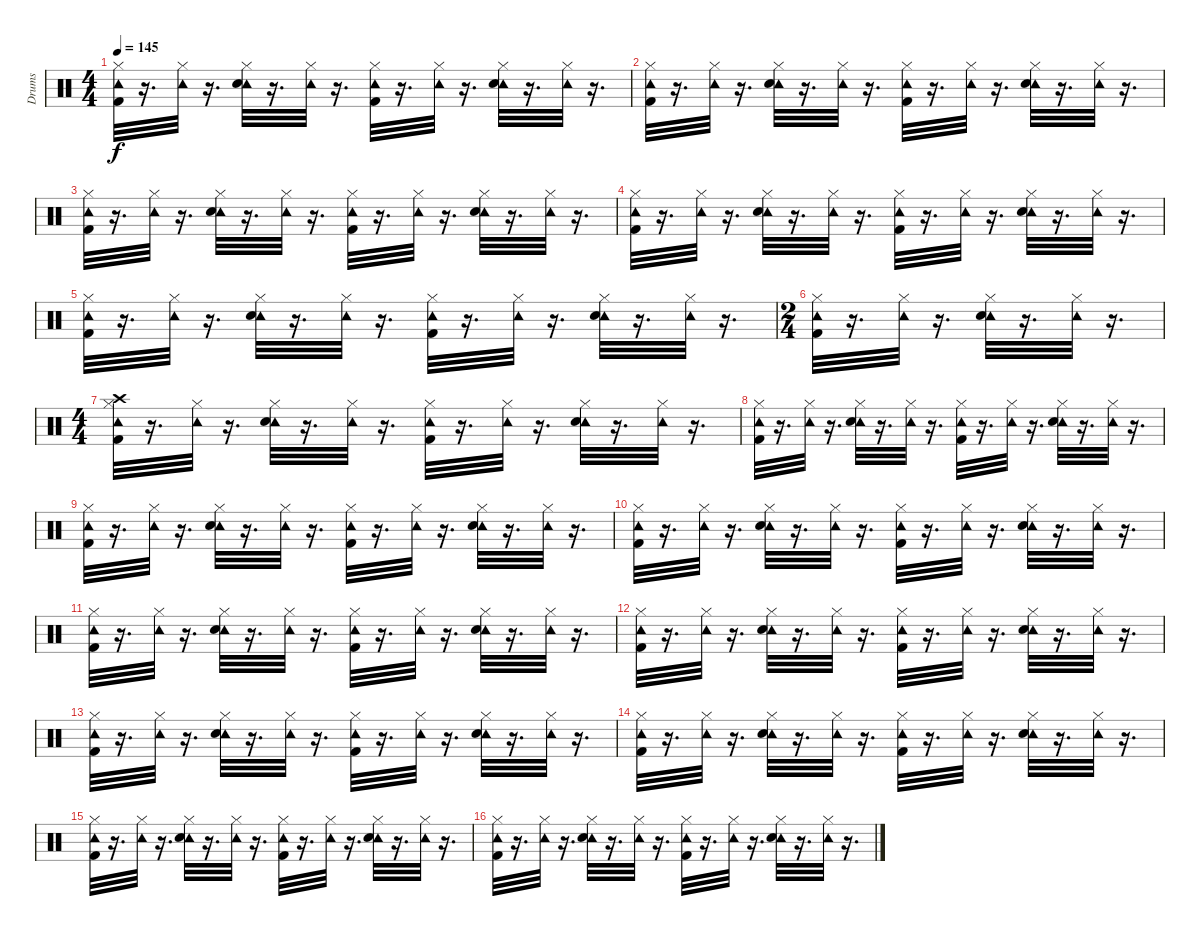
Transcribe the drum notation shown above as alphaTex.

\track ("Drums" "Drums") {instrument percussion}
\staff {score}
\articulation defaults
\ts (4 4)
\tempo 145
\clef neutral
\ks c
("Tambourine (hit)" "Kick (hit) 2" "Hi-Hat (closed)").32{dy f} r.16{d} ("Tambourine (hit)" "Hi-Hat (closed)").32 r.16{d} ("Tambourine (hit)" "Hi-Hat (closed)" "Snare (hit) 2").32 r.16{d} ("Tambourine (hit)" "Hi-Hat (closed)").32 r.16{d} ("Tambourine (hit)" "Kick (hit) 2" "Hi-Hat (closed)").32 r.16{d} ("Tambourine (hit)" "Hi-Hat (closed)").32 r.16{d} ("Tambourine (hit)" "Snare (hit) 2" "Hi-Hat (closed)").32 r.16{d} ("Tambourine (hit)" "Hi-Hat (closed)").32 r.16{d} |
("Tambourine (hit)" "Kick (hit) 2" "Hi-Hat (closed)").32 r.16{d} ("Tambourine (hit)" "Hi-Hat (closed)").32 r.16{d} ("Tambourine (hit)" "Hi-Hat (closed)" "Snare (hit) 2").32 r.16{d} ("Tambourine (hit)" "Hi-Hat (closed)").32 r.16{d} ("Tambourine (hit)" "Kick (hit) 2" "Hi-Hat (closed)").32 r.16{d} ("Tambourine (hit)" "Hi-Hat (closed)").32 r.16{d} ("Tambourine (hit)" "Snare (hit) 2" "Hi-Hat (closed)").32 r.16{d} ("Tambourine (hit)" "Hi-Hat (closed)").32 r.16{d} |
("Tambourine (hit)" "Kick (hit) 2" "Hi-Hat (closed)").32 r.16{d} ("Tambourine (hit)" "Hi-Hat (closed)").32 r.16{d} ("Tambourine (hit)" "Hi-Hat (closed)" "Snare (hit) 2").32 r.16{d} ("Tambourine (hit)" "Hi-Hat (closed)").32 r.16{d} ("Tambourine (hit)" "Kick (hit) 2" "Hi-Hat (closed)").32 r.16{d} ("Tambourine (hit)" "Hi-Hat (closed)").32 r.16{d} ("Tambourine (hit)" "Snare (hit) 2" "Hi-Hat (closed)").32 r.16{d} ("Tambourine (hit)" "Hi-Hat (closed)").32 r.16{d} |
("Tambourine (hit)" "Kick (hit) 2" "Hi-Hat (closed)").32 r.16{d} ("Tambourine (hit)" "Hi-Hat (closed)").32 r.16{d} ("Tambourine (hit)" "Hi-Hat (closed)" "Snare (hit) 2").32 r.16{d} ("Tambourine (hit)" "Hi-Hat (closed)").32 r.16{d} ("Tambourine (hit)" "Kick (hit) 2" "Hi-Hat (closed)").32 r.16{d} ("Tambourine (hit)" "Hi-Hat (closed)").32 r.16{d} ("Tambourine (hit)" "Snare (hit) 2" "Hi-Hat (closed)").32 r.16{d} ("Tambourine (hit)" "Hi-Hat (closed)").32 r.16{d} |
("Tambourine (hit)" "Kick (hit) 2" "Hi-Hat (closed)").32 r.16{d} ("Tambourine (hit)" "Hi-Hat (closed)").32 r.16{d} ("Tambourine (hit)" "Hi-Hat (closed)" "Snare (hit) 2").32 r.16{d} ("Tambourine (hit)" "Hi-Hat (closed)").32 r.16{d} ("Tambourine (hit)" "Kick (hit) 2" "Hi-Hat (closed)").32 r.16{d} ("Tambourine (hit)" "Hi-Hat (closed)").32 r.16{d} ("Tambourine (hit)" "Snare (hit) 2" "Hi-Hat (closed)").32 r.16{d} ("Tambourine (hit)" "Hi-Hat (closed)").32 r.16{d} |
\ts (2 4)
("Tambourine (hit)" "Kick (hit) 2" "Hi-Hat (closed)").32 r.16{d} ("Tambourine (hit)" "Hi-Hat (closed)").32 r.16{d} ("Tambourine (hit)" "Hi-Hat (closed)" "Snare (hit) 2").32 r.16{d} ("Tambourine (hit)" "Hi-Hat (closed)").32 r.16{d} |
\ts (4 4)
("Tambourine (hit)" "Kick (hit) 2" "Hi-Hat (closed)" "Crash high (hit)").32 r.16{d} ("Tambourine (hit)" "Hi-Hat (closed)").32 r.16{d} ("Tambourine (hit)" "Hi-Hat (closed)" "Snare (hit) 2").32 r.16{d} ("Tambourine (hit)" "Hi-Hat (closed)").32 r.16{d} ("Tambourine (hit)" "Kick (hit) 2" "Hi-Hat (closed)").32 r.16{d} ("Tambourine (hit)" "Hi-Hat (closed)").32 r.16{d} ("Tambourine (hit)" "Snare (hit) 2" "Hi-Hat (closed)").32 r.16{d} ("Tambourine (hit)" "Hi-Hat (closed)").32 r.16{d} |
("Tambourine (hit)" "Kick (hit) 2" "Hi-Hat (closed)").32 r.16{d} ("Tambourine (hit)" "Hi-Hat (closed)").32 r.16{d} ("Tambourine (hit)" "Hi-Hat (closed)" "Snare (hit) 2").32 r.16{d} ("Tambourine (hit)" "Hi-Hat (closed)").32 r.16{d} ("Tambourine (hit)" "Kick (hit) 2" "Hi-Hat (closed)").32 r.16{d} ("Tambourine (hit)" "Hi-Hat (closed)").32 r.16{d} ("Tambourine (hit)" "Snare (hit) 2" "Hi-Hat (closed)").32 r.16{d} ("Tambourine (hit)" "Hi-Hat (closed)").32 r.16{d} |
("Tambourine (hit)" "Kick (hit) 2" "Hi-Hat (closed)").32 r.16{d} ("Tambourine (hit)" "Hi-Hat (closed)").32 r.16{d} ("Tambourine (hit)" "Hi-Hat (closed)" "Snare (hit) 2").32 r.16{d} ("Tambourine (hit)" "Hi-Hat (closed)").32 r.16{d} ("Tambourine (hit)" "Kick (hit) 2" "Hi-Hat (closed)").32 r.16{d} ("Tambourine (hit)" "Hi-Hat (closed)").32 r.16{d} ("Tambourine (hit)" "Snare (hit) 2" "Hi-Hat (closed)").32 r.16{d} ("Tambourine (hit)" "Hi-Hat (closed)").32 r.16{d} |
("Tambourine (hit)" "Kick (hit) 2" "Hi-Hat (closed)").32 r.16{d} ("Tambourine (hit)" "Hi-Hat (closed)").32 r.16{d} ("Tambourine (hit)" "Hi-Hat (closed)" "Snare (hit) 2").32 r.16{d} ("Tambourine (hit)" "Hi-Hat (closed)").32 r.16{d} ("Tambourine (hit)" "Kick (hit) 2" "Hi-Hat (closed)").32 r.16{d} ("Tambourine (hit)" "Hi-Hat (closed)").32 r.16{d} ("Tambourine (hit)" "Snare (hit) 2" "Hi-Hat (closed)").32 r.16{d} ("Tambourine (hit)" "Hi-Hat (closed)").32 r.16{d} |
("Tambourine (hit)" "Kick (hit) 2" "Hi-Hat (closed)").32 r.16{d} ("Tambourine (hit)" "Hi-Hat (closed)").32 r.16{d} ("Tambourine (hit)" "Hi-Hat (closed)" "Snare (hit) 2").32 r.16{d} ("Tambourine (hit)" "Hi-Hat (closed)").32 r.16{d} ("Tambourine (hit)" "Kick (hit) 2" "Hi-Hat (closed)").32 r.16{d} ("Tambourine (hit)" "Hi-Hat (closed)").32 r.16{d} ("Tambourine (hit)" "Snare (hit) 2" "Hi-Hat (closed)").32 r.16{d} ("Tambourine (hit)" "Hi-Hat (closed)").32 r.16{d} |
("Tambourine (hit)" "Kick (hit) 2" "Hi-Hat (closed)").32 r.16{d} ("Tambourine (hit)" "Hi-Hat (closed)").32 r.16{d} ("Tambourine (hit)" "Hi-Hat (closed)" "Snare (hit) 2").32 r.16{d} ("Tambourine (hit)" "Hi-Hat (closed)").32 r.16{d} ("Tambourine (hit)" "Kick (hit) 2" "Hi-Hat (closed)").32 r.16{d} ("Tambourine (hit)" "Hi-Hat (closed)").32 r.16{d} ("Tambourine (hit)" "Snare (hit) 2" "Hi-Hat (closed)").32 r.16{d} ("Tambourine (hit)" "Hi-Hat (closed)").32 r.16{d} |
("Tambourine (hit)" "Kick (hit) 2" "Hi-Hat (closed)").32 r.16{d} ("Tambourine (hit)" "Hi-Hat (closed)").32 r.16{d} ("Tambourine (hit)" "Hi-Hat (closed)" "Snare (hit) 2").32 r.16{d} ("Tambourine (hit)" "Hi-Hat (closed)").32 r.16{d} ("Tambourine (hit)" "Kick (hit) 2" "Hi-Hat (closed)").32 r.16{d} ("Tambourine (hit)" "Hi-Hat (closed)").32 r.16{d} ("Tambourine (hit)" "Snare (hit) 2" "Hi-Hat (closed)").32 r.16{d} ("Tambourine (hit)" "Hi-Hat (closed)").32 r.16{d} |
("Tambourine (hit)" "Kick (hit) 2" "Hi-Hat (closed)").32 r.16{d} ("Tambourine (hit)" "Hi-Hat (closed)").32 r.16{d} ("Tambourine (hit)" "Hi-Hat (closed)" "Snare (hit) 2").32 r.16{d} ("Tambourine (hit)" "Hi-Hat (closed)").32 r.16{d} ("Tambourine (hit)" "Kick (hit) 2" "Hi-Hat (closed)").32 r.16{d} ("Tambourine (hit)" "Hi-Hat (closed)").32 r.16{d} ("Tambourine (hit)" "Snare (hit) 2" "Hi-Hat (closed)").32 r.16{d} ("Tambourine (hit)" "Hi-Hat (closed)").32 r.16{d} |
("Tambourine (hit)" "Kick (hit) 2" "Hi-Hat (closed)").32 r.16{d} ("Tambourine (hit)" "Hi-Hat (closed)").32 r.16{d} ("Tambourine (hit)" "Hi-Hat (closed)" "Snare (hit) 2").32 r.16{d} ("Tambourine (hit)" "Hi-Hat (closed)").32 r.16{d} ("Tambourine (hit)" "Kick (hit) 2" "Hi-Hat (closed)").32 r.16{d} ("Tambourine (hit)" "Hi-Hat (closed)").32 r.16{d} ("Tambourine (hit)" "Snare (hit) 2" "Hi-Hat (closed)").32 r.16{d} ("Tambourine (hit)" "Hi-Hat (closed)").32 r.16{d} |
("Tambourine (hit)" "Kick (hit) 2" "Hi-Hat (closed)").32 r.16{d} ("Tambourine (hit)" "Hi-Hat (closed)").32 r.16{d} ("Tambourine (hit)" "Hi-Hat (closed)" "Snare (hit) 2").32 r.16{d} ("Tambourine (hit)" "Hi-Hat (closed)").32 r.16{d} ("Tambourine (hit)" "Kick (hit) 2" "Hi-Hat (closed)").32 r.16{d} ("Tambourine (hit)" "Hi-Hat (closed)").32 r.16{d} ("Tambourine (hit)" "Snare (hit) 2" "Hi-Hat (closed)").32 r.16{d} ("Tambourine (hit)" "Hi-Hat (closed)").32 r.16{d}
